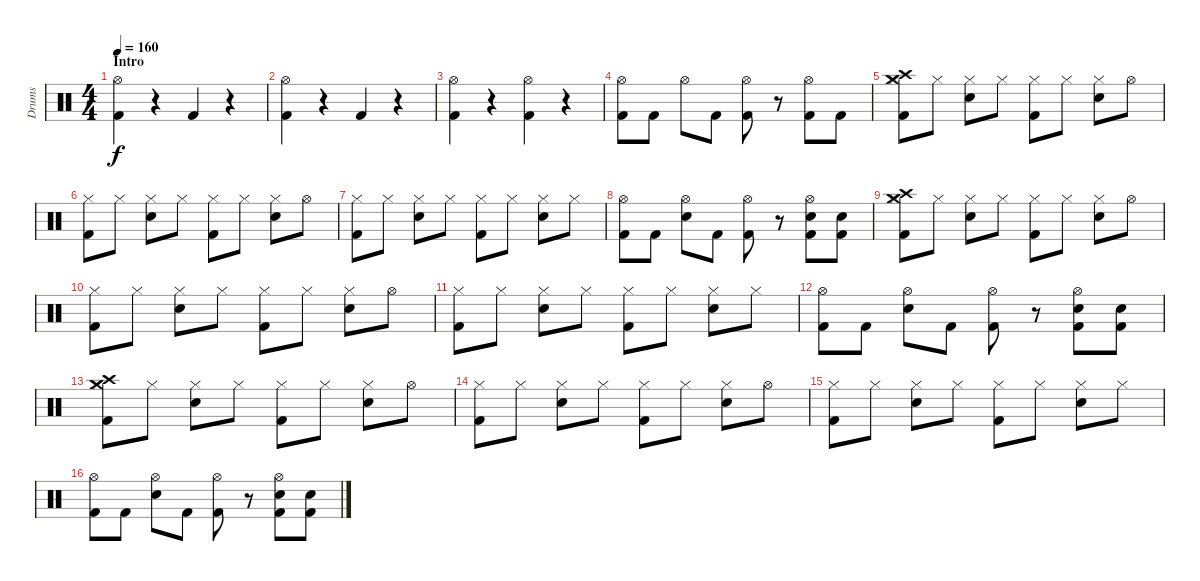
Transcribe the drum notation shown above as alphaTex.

\track ("Drums" "Drums") {instrument percussion}
\staff {score}
\articulation defaults
\ts (4 4)
\section ("" "Intro")
\tempo 160
\clef neutral
\ks c
("Hi-Hat (open)" "Kick (hit) 2").4{dy f} r.4 "Kick (hit) 2".4 r.4 |
("Hi-Hat (open)" "Kick (hit) 2").4 r.4 "Kick (hit) 2".4 r.4 |
("Hi-Hat (open)" "Kick (hit) 2").4 r.4 ("Hi-Hat (open)" "Kick (hit) 2").4 r.4 |
("Hi-Hat (open)" "Kick (hit) 2").8 "Kick (hit) 2".8 "Hi-Hat (open)".8 "Kick (hit) 2".8 ("Hi-Hat (open)" "Kick (hit) 2").8 r.8 ("Hi-Hat (open)" "Kick (hit) 2").8 "Kick (hit) 2".8 |
("Crash medium (hit)" "Crash high (hit)" "Hi-Hat (closed)" "Kick (hit) 2").8 "Hi-Hat (closed)".8 ("Hi-Hat (closed)" "Electric Snare (hit)").8 "Hi-Hat (closed)".8 ("Hi-Hat (closed)" "Kick (hit) 2").8 "Hi-Hat (closed)".8 ("Hi-Hat (closed)" "Electric Snare (hit)").8 "Hi-Hat (open)".8 |
("Hi-Hat (closed)" "Kick (hit) 2").8 "Hi-Hat (closed)".8 ("Hi-Hat (closed)" "Electric Snare (hit)").8 "Hi-Hat (closed)".8 ("Hi-Hat (closed)" "Kick (hit) 2").8 "Hi-Hat (closed)".8 ("Hi-Hat (closed)" "Electric Snare (hit)").8 "Hi-Hat (open)".8 |
("Hi-Hat (closed)" "Kick (hit) 2").8 "Hi-Hat (closed)".8 ("Hi-Hat (closed)" "Electric Snare (hit)").8 "Hi-Hat (closed)".8 ("Hi-Hat (closed)" "Kick (hit) 2").8 "Hi-Hat (closed)".8 ("Hi-Hat (closed)" "Electric Snare (hit)").8 "Hi-Hat (closed)".8 |
("Hi-Hat (open)" "Kick (hit) 2").8 "Kick (hit) 2".8 ("Hi-Hat (open)" "Electric Snare (hit)").8 "Kick (hit) 2".8 ("Hi-Hat (open)" "Kick (hit) 2").8 r.8 ("Hi-Hat (open)" "Electric Snare (hit)" "Kick (hit) 2").8 ("Electric Snare (hit)" "Kick (hit) 2").8 |
("Crash medium (hit)" "Crash high (hit)" "Hi-Hat (closed)" "Kick (hit) 2").8 "Hi-Hat (closed)".8 ("Hi-Hat (closed)" "Electric Snare (hit)").8 "Hi-Hat (closed)".8 ("Hi-Hat (closed)" "Kick (hit) 2").8 "Hi-Hat (closed)".8 ("Hi-Hat (closed)" "Electric Snare (hit)").8 "Hi-Hat (open)".8 |
("Hi-Hat (closed)" "Kick (hit) 2").8 "Hi-Hat (closed)".8 ("Hi-Hat (closed)" "Electric Snare (hit)").8 "Hi-Hat (closed)".8 ("Hi-Hat (closed)" "Kick (hit) 2").8 "Hi-Hat (closed)".8 ("Hi-Hat (closed)" "Electric Snare (hit)").8 "Hi-Hat (open)".8 |
("Hi-Hat (closed)" "Kick (hit) 2").8 "Hi-Hat (closed)".8 ("Hi-Hat (closed)" "Electric Snare (hit)").8 "Hi-Hat (closed)".8 ("Hi-Hat (closed)" "Kick (hit) 2").8 "Hi-Hat (closed)".8 ("Hi-Hat (closed)" "Electric Snare (hit)").8 "Hi-Hat (closed)".8 |
("Hi-Hat (open)" "Kick (hit) 2").8 "Kick (hit) 2".8 ("Hi-Hat (open)" "Electric Snare (hit)").8 "Kick (hit) 2".8 ("Hi-Hat (open)" "Kick (hit) 2").8 r.8 ("Hi-Hat (open)" "Electric Snare (hit)" "Kick (hit) 2").8 ("Electric Snare (hit)" "Kick (hit) 2").8 |
("Crash medium (hit)" "Crash high (hit)" "Hi-Hat (closed)" "Kick (hit) 2").8 "Hi-Hat (closed)".8 ("Hi-Hat (closed)" "Electric Snare (hit)").8 "Hi-Hat (closed)".8 ("Hi-Hat (closed)" "Kick (hit) 2").8 "Hi-Hat (closed)".8 ("Hi-Hat (closed)" "Electric Snare (hit)").8 "Hi-Hat (open)".8 |
("Hi-Hat (closed)" "Kick (hit) 2").8 "Hi-Hat (closed)".8 ("Hi-Hat (closed)" "Electric Snare (hit)").8 "Hi-Hat (closed)".8 ("Hi-Hat (closed)" "Kick (hit) 2").8 "Hi-Hat (closed)".8 ("Hi-Hat (closed)" "Electric Snare (hit)").8 "Hi-Hat (open)".8 |
("Hi-Hat (closed)" "Kick (hit) 2").8 "Hi-Hat (closed)".8 ("Hi-Hat (closed)" "Electric Snare (hit)").8 "Hi-Hat (closed)".8 ("Hi-Hat (closed)" "Kick (hit) 2").8 "Hi-Hat (closed)".8 ("Hi-Hat (closed)" "Electric Snare (hit)").8 "Hi-Hat (closed)".8 |
("Hi-Hat (open)" "Kick (hit) 2").8 "Kick (hit) 2".8 ("Hi-Hat (open)" "Electric Snare (hit)").8 "Kick (hit) 2".8 ("Hi-Hat (open)" "Kick (hit) 2").8 r.8 ("Hi-Hat (open)" "Electric Snare (hit)" "Kick (hit) 2").8 ("Electric Snare (hit)" "Kick (hit) 2").8
